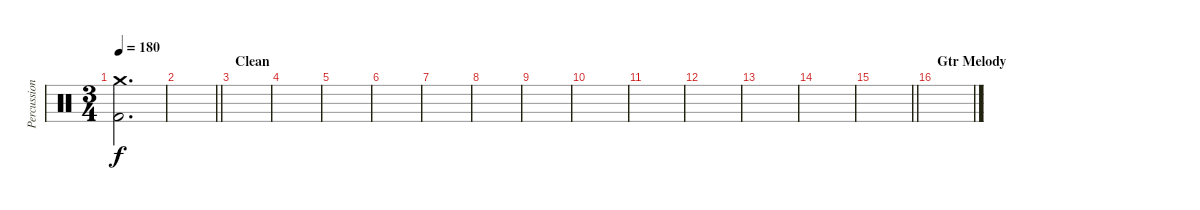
\track ("Percussions" "Percussion") {instrument percussion}
\staff {score}
\articulation defaults
\ts (3 4)
\tempo 180
\clef neutral
\ks c
("Crash medium (hit)" "Kick (hit) 2").2{d dy f} |
\barLineRight lightlight
|
\section ("" "Clean")
|
|
|
|
|
|
|
|
|
|
|
|
\barLineRight lightlight
|
\section ("" "Gtr Melody")
